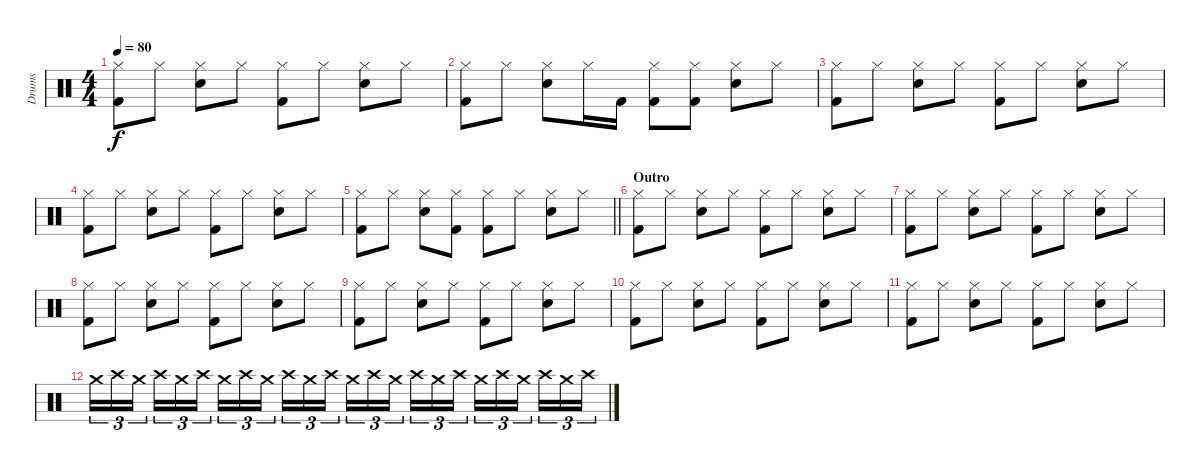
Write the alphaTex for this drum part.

\track ("Drums" "Drums") {instrument percussion}
\staff {score}
\articulation defaults
\ts (4 4)
\tempo 80
\clef neutral
\ks c
("Hi-Hat (closed)" "Kick (hit) 2").8{dy f} "Hi-Hat (closed)".8 ("Hi-Hat (closed)" "Snare (hit) 2").8 "Hi-Hat (closed)".8 ("Hi-Hat (closed)" "Kick (hit) 2").8 "Hi-Hat (closed)".8 ("Hi-Hat (closed)" "Snare (hit) 2").8 "Hi-Hat (closed)".8 |
("Hi-Hat (closed)" "Kick (hit) 2").8 "Hi-Hat (closed)".8 ("Hi-Hat (closed)" "Snare (hit) 2").8 "Hi-Hat (closed)".16 "Kick (hit) 2".16 ("Hi-Hat (closed)" "Kick (hit) 2").8 ("Hi-Hat (closed)" "Kick (hit) 2").8 ("Hi-Hat (closed)" "Snare (hit) 2").8 "Hi-Hat (closed)".8 |
("Hi-Hat (closed)" "Kick (hit) 2").8 "Hi-Hat (closed)".8 ("Hi-Hat (closed)" "Snare (hit) 2").8 "Hi-Hat (closed)".8 ("Hi-Hat (closed)" "Kick (hit) 2").8 "Hi-Hat (closed)".8 ("Hi-Hat (closed)" "Snare (hit) 2").8 "Hi-Hat (closed)".8 |
("Hi-Hat (closed)" "Kick (hit) 2").8 "Hi-Hat (closed)".8 ("Hi-Hat (closed)" "Snare (hit) 2").8 "Hi-Hat (closed)".8 ("Hi-Hat (closed)" "Kick (hit) 2").8 "Hi-Hat (closed)".8 ("Hi-Hat (closed)" "Snare (hit) 2").8 "Hi-Hat (closed)".8 |
\barLineRight lightlight
("Hi-Hat (closed)" "Kick (hit) 2").8 "Hi-Hat (closed)".8 ("Hi-Hat (closed)" "Snare (hit) 2").8 ("Hi-Hat (closed)" "Kick (hit) 2").8 ("Hi-Hat (closed)" "Kick (hit) 2").8 "Hi-Hat (closed)".8 ("Hi-Hat (closed)" "Snare (hit) 2").8 "Hi-Hat (closed)".8 |
\section ("" "Outro")
("Hi-Hat (closed)" "Kick (hit) 2").8 "Hi-Hat (closed)".8 ("Hi-Hat (closed)" "Snare (hit) 2").8 "Hi-Hat (closed)".8 ("Hi-Hat (closed)" "Kick (hit) 2").8 "Hi-Hat (closed)".8 ("Hi-Hat (closed)" "Snare (hit) 2").8 "Hi-Hat (closed)".8 |
("Hi-Hat (closed)" "Kick (hit) 2").8 "Hi-Hat (closed)".8 ("Hi-Hat (closed)" "Snare (hit) 2").8 "Hi-Hat (closed)".8 ("Hi-Hat (closed)" "Kick (hit) 2").8 "Hi-Hat (closed)".8 ("Hi-Hat (closed)" "Snare (hit) 2").8 "Hi-Hat (closed)".8 |
("Hi-Hat (closed)" "Kick (hit) 2").8 "Hi-Hat (closed)".8 ("Hi-Hat (closed)" "Snare (hit) 2").8 "Hi-Hat (closed)".8 ("Hi-Hat (closed)" "Kick (hit) 2").8 "Hi-Hat (closed)".8 ("Hi-Hat (closed)" "Snare (hit) 2").8 "Hi-Hat (closed)".8 |
("Hi-Hat (closed)" "Kick (hit) 2").8 "Hi-Hat (closed)".8 ("Hi-Hat (closed)" "Snare (hit) 2").8 "Hi-Hat (closed)".8 ("Hi-Hat (closed)" "Kick (hit) 2").8 "Hi-Hat (closed)".8 ("Hi-Hat (closed)" "Snare (hit) 2").8 "Hi-Hat (closed)".8 |
("Hi-Hat (closed)" "Kick (hit) 2").8 "Hi-Hat (closed)".8 ("Hi-Hat (closed)" "Snare (hit) 2").8 "Hi-Hat (closed)".8 ("Hi-Hat (closed)" "Kick (hit) 2").8 "Hi-Hat (closed)".8 ("Hi-Hat (closed)" "Snare (hit) 2").8 "Hi-Hat (closed)".8 |
("Hi-Hat (closed)" "Kick (hit) 2").8 "Hi-Hat (closed)".8 ("Hi-Hat (closed)" "Snare (hit) 2").8 "Hi-Hat (closed)".8 ("Hi-Hat (closed)" "Kick (hit) 2").8 "Hi-Hat (closed)".8 ("Hi-Hat (closed)" "Snare (hit) 2").8 "Hi-Hat (closed)".8 |
"Crash medium (hit)".16{tu (3 2)} "Crash high (hit)".16{tu (3 2)} "Crash medium (hit)".16{tu (3 2) beam splitsecondary} "Crash high (hit)".16{tu (3 2)} "Crash medium (hit)".16{tu (3 2)} "Crash high (hit)".16{tu (3 2)} "Crash medium (hit)".16{tu (3 2)} "Crash high (hit)".16{tu (3 2)} "Crash medium (hit)".16{tu (3 2) beam splitsecondary} "Crash high (hit)".16{tu (3 2)} "Crash medium (hit)".16{tu (3 2)} "Crash high (hit)".16{tu (3 2)} "Crash medium (hit)".16{tu (3 2)} "Crash high (hit)".16{tu (3 2)} "Crash medium (hit)".16{tu (3 2) beam splitsecondary} "Crash high (hit)".16{tu (3 2)} "Crash medium (hit)".16{tu (3 2)} "Crash high (hit)".16{tu (3 2)} "Crash medium (hit)".16{tu (3 2)} "Crash high (hit)".16{tu (3 2)} "Crash medium (hit)".16{tu (3 2) beam splitsecondary} "Crash high (hit)".16{tu (3 2)} "Crash medium (hit)".16{tu (3 2)} "Crash high (hit)".16{tu (3 2)}
